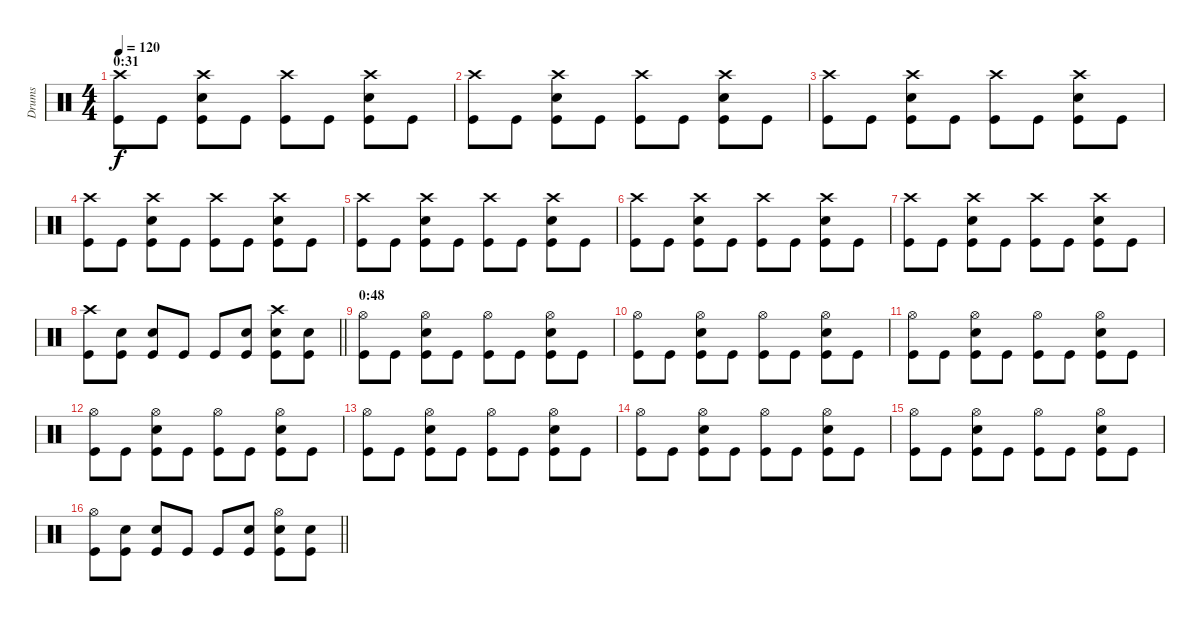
\track ("Drums" "Drums") {instrument percussion}
\staff {score}
\articulation defaults
\ts (4 4)
\section ("" "0:31")
\tempo 120
\clef neutral
\ks c
("Crash high (hit)" "Kick (hit)").8{dy f} "Kick (hit)".8 ("Crash high (hit)" "Electric Snare (hit)" "Kick (hit)").8 "Kick (hit)".8 ("Crash high (hit)" "Kick (hit)").8 "Kick (hit)".8 ("Crash high (hit)" "Electric Snare (hit)" "Kick (hit)").8 "Kick (hit)".8 |
("Crash high (hit)" "Kick (hit)").8 "Kick (hit)".8 ("Crash high (hit)" "Electric Snare (hit)" "Kick (hit)").8 "Kick (hit)".8 ("Crash high (hit)" "Kick (hit)").8 "Kick (hit)".8 ("Crash high (hit)" "Electric Snare (hit)" "Kick (hit)").8 "Kick (hit)".8 |
("Crash high (hit)" "Kick (hit)").8 "Kick (hit)".8 ("Crash high (hit)" "Electric Snare (hit)" "Kick (hit)").8 "Kick (hit)".8 ("Crash high (hit)" "Kick (hit)").8 "Kick (hit)".8 ("Crash high (hit)" "Electric Snare (hit)" "Kick (hit)").8 "Kick (hit)".8 |
("Crash high (hit)" "Kick (hit)").8 "Kick (hit)".8 ("Crash high (hit)" "Electric Snare (hit)" "Kick (hit)").8 "Kick (hit)".8 ("Crash high (hit)" "Kick (hit)").8 "Kick (hit)".8 ("Crash high (hit)" "Electric Snare (hit)" "Kick (hit)").8 "Kick (hit)".8 |
("Crash high (hit)" "Kick (hit)").8 "Kick (hit)".8 ("Crash high (hit)" "Electric Snare (hit)" "Kick (hit)").8 "Kick (hit)".8 ("Crash high (hit)" "Kick (hit)").8 "Kick (hit)".8 ("Crash high (hit)" "Electric Snare (hit)" "Kick (hit)").8 "Kick (hit)".8 |
("Crash high (hit)" "Kick (hit)").8 "Kick (hit)".8 ("Crash high (hit)" "Electric Snare (hit)" "Kick (hit)").8 "Kick (hit)".8 ("Crash high (hit)" "Kick (hit)").8 "Kick (hit)".8 ("Crash high (hit)" "Electric Snare (hit)" "Kick (hit)").8 "Kick (hit)".8 |
("Crash high (hit)" "Kick (hit)").8 "Kick (hit)".8 ("Crash high (hit)" "Electric Snare (hit)" "Kick (hit)").8 "Kick (hit)".8 ("Crash high (hit)" "Kick (hit)").8 "Kick (hit)".8 ("Crash high (hit)" "Electric Snare (hit)" "Kick (hit)").8 "Kick (hit)".8 |
\barLineRight lightlight
("Crash high (hit)" "Kick (hit)").8 ("Electric Snare (hit)" "Kick (hit)").8 ("Electric Snare (hit)" "Kick (hit)").8 "Kick (hit)".8 "Kick (hit)".8 ("Electric Snare (hit)" "Kick (hit)").8 ("Crash high (hit)" "Electric Snare (hit)" "Kick (hit)").8 ("Electric Snare (hit)" "Kick (hit)").8 |
\section ("" "0:48")
("Hi-Hat (open)" "Kick (hit)").8 "Kick (hit)".8 ("Hi-Hat (open)" "Electric Snare (hit)" "Kick (hit)").8 "Kick (hit)".8 ("Hi-Hat (open)" "Kick (hit)").8 "Kick (hit)".8 ("Hi-Hat (open)" "Electric Snare (hit)" "Kick (hit)").8 "Kick (hit)".8 |
("Hi-Hat (open)" "Kick (hit)").8 "Kick (hit)".8 ("Hi-Hat (open)" "Electric Snare (hit)" "Kick (hit)").8 "Kick (hit)".8 ("Hi-Hat (open)" "Kick (hit)").8 "Kick (hit)".8 ("Hi-Hat (open)" "Electric Snare (hit)" "Kick (hit)").8 "Kick (hit)".8 |
("Hi-Hat (open)" "Kick (hit)").8 "Kick (hit)".8 ("Hi-Hat (open)" "Electric Snare (hit)" "Kick (hit)").8 "Kick (hit)".8 ("Hi-Hat (open)" "Kick (hit)").8 "Kick (hit)".8 ("Hi-Hat (open)" "Electric Snare (hit)" "Kick (hit)").8 "Kick (hit)".8 |
("Hi-Hat (open)" "Kick (hit)").8 "Kick (hit)".8 ("Hi-Hat (open)" "Electric Snare (hit)" "Kick (hit)").8 "Kick (hit)".8 ("Hi-Hat (open)" "Kick (hit)").8 "Kick (hit)".8 ("Hi-Hat (open)" "Electric Snare (hit)" "Kick (hit)").8 "Kick (hit)".8 |
("Hi-Hat (open)" "Kick (hit)").8 "Kick (hit)".8 ("Hi-Hat (open)" "Electric Snare (hit)" "Kick (hit)").8 "Kick (hit)".8 ("Hi-Hat (open)" "Kick (hit)").8 "Kick (hit)".8 ("Hi-Hat (open)" "Electric Snare (hit)" "Kick (hit)").8 "Kick (hit)".8 |
("Hi-Hat (open)" "Kick (hit)").8 "Kick (hit)".8 ("Hi-Hat (open)" "Electric Snare (hit)" "Kick (hit)").8 "Kick (hit)".8 ("Hi-Hat (open)" "Kick (hit)").8 "Kick (hit)".8 ("Hi-Hat (open)" "Electric Snare (hit)" "Kick (hit)").8 "Kick (hit)".8 |
("Hi-Hat (open)" "Kick (hit)").8 "Kick (hit)".8 ("Hi-Hat (open)" "Electric Snare (hit)" "Kick (hit)").8 "Kick (hit)".8 ("Hi-Hat (open)" "Kick (hit)").8 "Kick (hit)".8 ("Hi-Hat (open)" "Electric Snare (hit)" "Kick (hit)").8 "Kick (hit)".8 |
\barLineRight lightlight
("Hi-Hat (open)" "Kick (hit)").8 ("Electric Snare (hit)" "Kick (hit)").8 ("Electric Snare (hit)" "Kick (hit)").8 "Kick (hit)".8 "Kick (hit)".8 ("Electric Snare (hit)" "Kick (hit)").8 ("Hi-Hat (open)" "Electric Snare (hit)" "Kick (hit)").8 ("Electric Snare (hit)" "Kick (hit)").8
